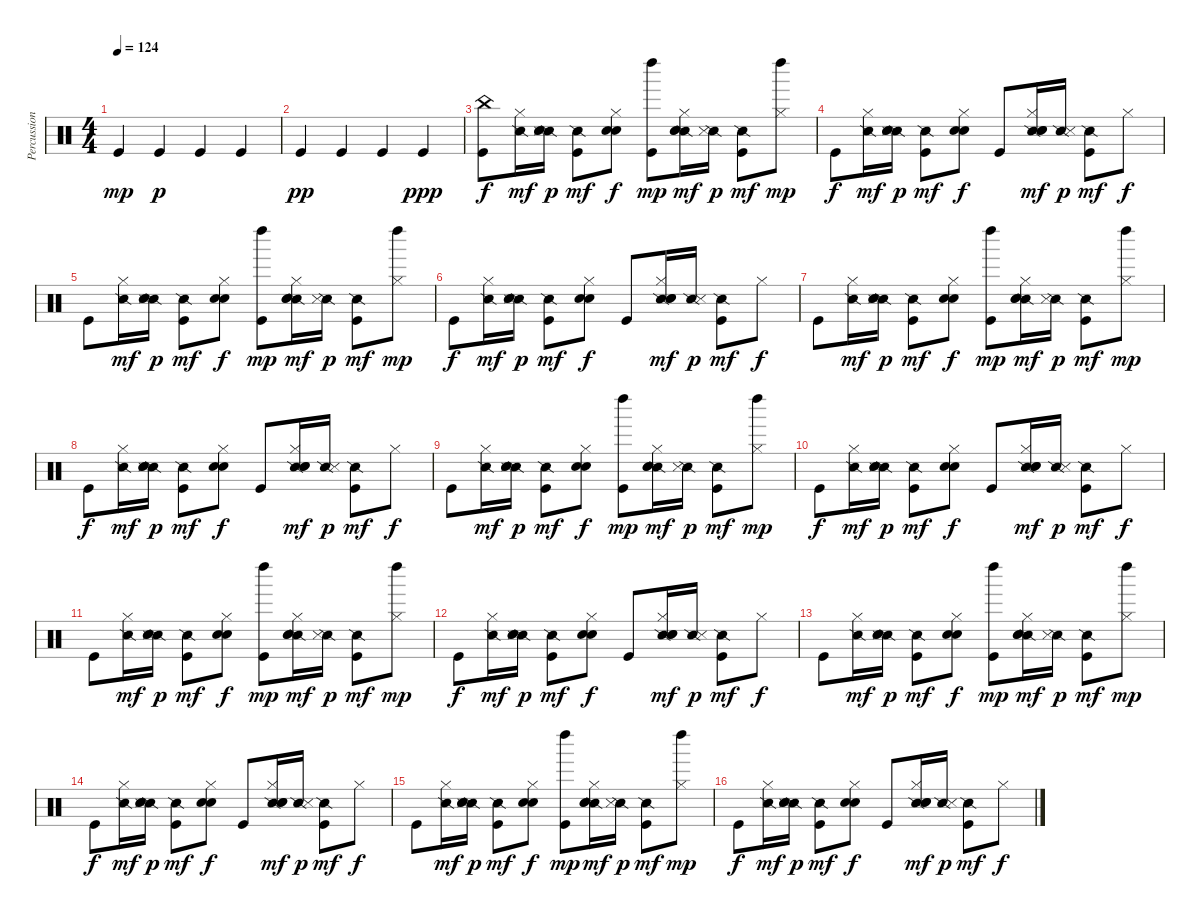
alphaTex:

\track ("Percussion" "Percussion") {instrument percussion}
\staff {score}
\articulation defaults
\ts (4 4)
\tempo 124
\clef neutral
\ks c "Kick (hit)".4{dy mp} "Kick (hit)".4{dy p} "Kick (hit)".4 "Kick (hit)".4
|
"Kick (hit)".4{dy pp} "Kick (hit)".4 "Kick (hit)".4 "Kick (hit)".4{dy ppp} |
("China (hit)" "Kick (hit)").8{dy f} ("Snare (side stick) 2" "Hi-Hat (closed)").16{dy mf} ("Snare (side stick) 2" "Snare (side stick) 3" "Snare (hit) 2" "Hand Clap (hit)").16{dy p} ("Snare (side stick) 2" "Kick (hit)").8{dy mf} ("Hi-Hat (closed)" "Snare (hit) 2" "Hand Clap (hit)").8{dy f} ("Left Maraca (hit)" "Kick (hit)").8{dy mp} ("Snare (side stick) 2" "Hi-Hat (closed)" "Snare (hit) 2" "Hand Clap (hit)").16{dy mf} ("Snare (side stick) 2" "Snare (side stick) 3").16{dy p} ("Snare (side stick) 2" "Kick (hit)").8{dy mf} ("Left Maraca (hit)" "Hi-Hat (closed)").8{dy mp} |
"Kick (hit)".8{dy f} ("Snare (side stick) 2" "Hi-Hat (closed)").16{dy mf} ("Snare (side stick) 2" "Snare (side stick) 3" "Snare (hit) 2" "Hand Clap (hit)").16{dy p} ("Snare (side stick) 2" "Kick (hit)").8{dy mf} ("Hi-Hat (closed)" "Snare (hit) 2" "Hand Clap (hit)").8{dy f} "Kick (hit)".8 ("Snare (side stick) 2" "Hi-Hat (closed)" "Snare (hit) 2" "Hand Clap (hit)").16{dy mf} ("Snare (side stick) 2" "Snare (side stick) 3").16{dy p} ("Snare (side stick) 2" "Kick (hit)").8{dy mf} "Hi-Hat (closed)".8{dy f} |
"Kick (hit)".8 ("Snare (side stick) 2" "Hi-Hat (closed)").16{dy mf} ("Snare (side stick) 2" "Snare (side stick) 3" "Snare (hit) 2" "Hand Clap (hit)").16{dy p} ("Snare (side stick) 2" "Kick (hit)").8{dy mf} ("Hi-Hat (closed)" "Snare (hit) 2" "Hand Clap (hit)").8{dy f} ("Left Maraca (hit)" "Kick (hit)").8{dy mp} ("Snare (side stick) 2" "Hi-Hat (closed)" "Snare (hit) 2" "Hand Clap (hit)").16{dy mf} ("Snare (side stick) 2" "Snare (side stick) 3").16{dy p} ("Snare (side stick) 2" "Kick (hit)").8{dy mf} ("Left Maraca (hit)" "Hi-Hat (closed)").8{dy mp} |
"Kick (hit)".8{dy f} ("Snare (side stick) 2" "Hi-Hat (closed)").16{dy mf} ("Snare (side stick) 2" "Snare (side stick) 3" "Snare (hit) 2" "Hand Clap (hit)").16{dy p} ("Snare (side stick) 2" "Kick (hit)").8{dy mf} ("Hi-Hat (closed)" "Snare (hit) 2" "Hand Clap (hit)").8{dy f} "Kick (hit)".8 ("Snare (side stick) 2" "Hi-Hat (closed)" "Snare (hit) 2" "Hand Clap (hit)").16{dy mf} ("Snare (side stick) 2" "Snare (side stick) 3").16{dy p} ("Snare (side stick) 2" "Kick (hit)").8{dy mf} "Hi-Hat (closed)".8{dy f} |
"Kick (hit)".8 ("Snare (side stick) 2" "Hi-Hat (closed)").16{dy mf} ("Snare (side stick) 2" "Snare (side stick) 3" "Snare (hit) 2" "Hand Clap (hit)").16{dy p} ("Snare (side stick) 2" "Kick (hit)").8{dy mf} ("Hi-Hat (closed)" "Snare (hit) 2" "Hand Clap (hit)").8{dy f} ("Left Maraca (hit)" "Kick (hit)").8{dy mp} ("Snare (side stick) 2" "Hi-Hat (closed)" "Snare (hit) 2" "Hand Clap (hit)").16{dy mf} ("Snare (side stick) 2" "Snare (side stick) 3").16{dy p} ("Snare (side stick) 2" "Kick (hit)").8{dy mf} ("Left Maraca (hit)" "Hi-Hat (closed)").8{dy mp} |
"Kick (hit)".8{dy f} ("Snare (side stick) 2" "Hi-Hat (closed)").16{dy mf} ("Snare (side stick) 2" "Snare (side stick) 3" "Snare (hit) 2" "Hand Clap (hit)").16{dy p} ("Snare (side stick) 2" "Kick (hit)").8{dy mf} ("Hi-Hat (closed)" "Snare (hit) 2" "Hand Clap (hit)").8{dy f} "Kick (hit)".8 ("Snare (side stick) 2" "Hi-Hat (closed)" "Snare (hit) 2" "Hand Clap (hit)").16{dy mf} ("Snare (side stick) 2" "Snare (side stick) 3").16{dy p} ("Snare (side stick) 2" "Kick (hit)").8{dy mf} "Hi-Hat (closed)".8{dy f} |
"Kick (hit)".8 ("Snare (side stick) 2" "Hi-Hat (closed)").16{dy mf} ("Snare (side stick) 2" "Snare (side stick) 3" "Snare (hit) 2" "Hand Clap (hit)").16{dy p} ("Snare (side stick) 2" "Kick (hit)").8{dy mf} ("Hi-Hat (closed)" "Snare (hit) 2" "Hand Clap (hit)").8{dy f} ("Left Maraca (hit)" "Kick (hit)").8{dy mp} ("Snare (side stick) 2" "Hi-Hat (closed)" "Snare (hit) 2" "Hand Clap (hit)").16{dy mf} ("Snare (side stick) 2" "Snare (side stick) 3").16{dy p} ("Snare (side stick) 2" "Kick (hit)").8{dy mf} ("Left Maraca (hit)" "Hi-Hat (closed)").8{dy mp} |
"Kick (hit)".8{dy f} ("Snare (side stick) 2" "Hi-Hat (closed)").16{dy mf} ("Snare (side stick) 2" "Snare (side stick) 3" "Snare (hit) 2" "Hand Clap (hit)").16{dy p} ("Snare (side stick) 2" "Kick (hit)").8{dy mf} ("Hi-Hat (closed)" "Snare (hit) 2" "Hand Clap (hit)").8{dy f} "Kick (hit)".8 ("Snare (side stick) 2" "Hi-Hat (closed)" "Snare (hit) 2" "Hand Clap (hit)").16{dy mf} ("Snare (side stick) 2" "Snare (side stick) 3").16{dy p} ("Snare (side stick) 2" "Kick (hit)").8{dy mf} "Hi-Hat (closed)".8{dy f} |
"Kick (hit)".8 ("Snare (side stick) 2" "Hi-Hat (closed)").16{dy mf} ("Snare (side stick) 2" "Snare (side stick) 3" "Snare (hit) 2" "Hand Clap (hit)").16{dy p} ("Snare (side stick) 2" "Kick (hit)").8{dy mf} ("Hi-Hat (closed)" "Snare (hit) 2" "Hand Clap (hit)").8{dy f} ("Left Maraca (hit)" "Kick (hit)").8{dy mp} ("Snare (side stick) 2" "Hi-Hat (closed)" "Snare (hit) 2" "Hand Clap (hit)").16{dy mf} ("Snare (side stick) 2" "Snare (side stick) 3").16{dy p} ("Snare (side stick) 2" "Kick (hit)").8{dy mf} ("Left Maraca (hit)" "Hi-Hat (closed)").8{dy mp} |
"Kick (hit)".8{dy f} ("Snare (side stick) 2" "Hi-Hat (closed)").16{dy mf} ("Snare (side stick) 2" "Snare (side stick) 3" "Snare (hit) 2" "Hand Clap (hit)").16{dy p} ("Snare (side stick) 2" "Kick (hit)").8{dy mf} ("Hi-Hat (closed)" "Snare (hit) 2" "Hand Clap (hit)").8{dy f} "Kick (hit)".8 ("Snare (side stick) 2" "Hi-Hat (closed)" "Snare (hit) 2" "Hand Clap (hit)").16{dy mf} ("Snare (side stick) 2" "Snare (side stick) 3").16{dy p} ("Snare (side stick) 2" "Kick (hit)").8{dy mf} "Hi-Hat (closed)".8{dy f} |
"Kick (hit)".8 ("Snare (side stick) 2" "Hi-Hat (closed)").16{dy mf} ("Snare (side stick) 2" "Snare (side stick) 3" "Snare (hit) 2" "Hand Clap (hit)").16{dy p} ("Snare (side stick) 2" "Kick (hit)").8{dy mf} ("Hi-Hat (closed)" "Snare (hit) 2" "Hand Clap (hit)").8{dy f} ("Left Maraca (hit)" "Kick (hit)").8{dy mp} ("Snare (side stick) 2" "Hi-Hat (closed)" "Snare (hit) 2" "Hand Clap (hit)").16{dy mf} ("Snare (side stick) 2" "Snare (side stick) 3").16{dy p} ("Snare (side stick) 2" "Kick (hit)").8{dy mf} ("Left Maraca (hit)" "Hi-Hat (closed)").8{dy mp} |
"Kick (hit)".8{dy f} ("Snare (side stick) 2" "Hi-Hat (closed)").16{dy mf} ("Snare (side stick) 2" "Snare (side stick) 3" "Snare (hit) 2" "Hand Clap (hit)").16{dy p} ("Snare (side stick) 2" "Kick (hit)").8{dy mf} ("Hi-Hat (closed)" "Snare (hit) 2" "Hand Clap (hit)").8{dy f} "Kick (hit)".8 ("Snare (side stick) 2" "Hi-Hat (closed)" "Snare (hit) 2" "Hand Clap (hit)").16{dy mf} ("Snare (side stick) 2" "Snare (side stick) 3").16{dy p} ("Snare (side stick) 2" "Kick (hit)").8{dy mf} "Hi-Hat (closed)".8{dy f} |
"Kick (hit)".8 ("Snare (side stick) 2" "Hi-Hat (closed)").16{dy mf} ("Snare (side stick) 2" "Snare (side stick) 3" "Snare (hit) 2" "Hand Clap (hit)").16{dy p} ("Snare (side stick) 2" "Kick (hit)").8{dy mf} ("Hi-Hat (closed)" "Snare (hit) 2" "Hand Clap (hit)").8{dy f} ("Left Maraca (hit)" "Kick (hit)").8{dy mp} ("Snare (side stick) 2" "Hi-Hat (closed)" "Snare (hit) 2" "Hand Clap (hit)").16{dy mf} ("Snare (side stick) 2" "Snare (side stick) 3").16{dy p} ("Snare (side stick) 2" "Kick (hit)").8{dy mf} ("Left Maraca (hit)" "Hi-Hat (closed)").8{dy mp} |
"Kick (hit)".8{dy f} ("Snare (side stick) 2" "Hi-Hat (closed)").16{dy mf} ("Snare (side stick) 2" "Snare (side stick) 3" "Snare (hit) 2" "Hand Clap (hit)").16{dy p} ("Snare (side stick) 2" "Kick (hit)").8{dy mf} ("Hi-Hat (closed)" "Snare (hit) 2" "Hand Clap (hit)").8{dy f} "Kick (hit)".8 ("Snare (side stick) 2" "Hi-Hat (closed)" "Snare (hit) 2" "Hand Clap (hit)").16{dy mf} ("Snare (side stick) 2" "Snare (side stick) 3").16{dy p} ("Snare (side stick) 2" "Kick (hit)").8{dy mf} "Hi-Hat (closed)".8{dy f}
